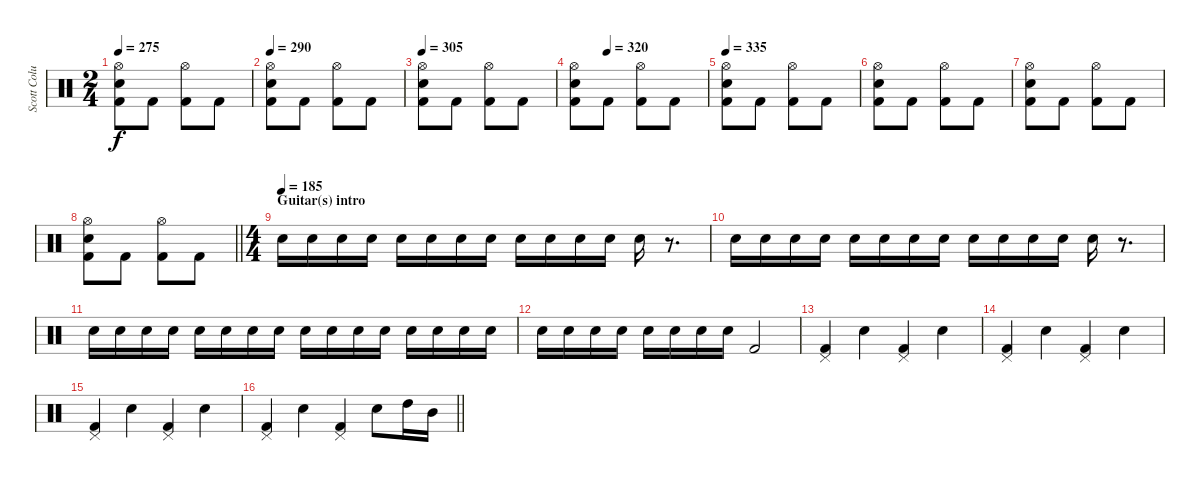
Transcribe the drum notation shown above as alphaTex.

\track ("Scott Columbus" "Scott Colu") {instrument percussion}
\staff {score}
\articulation defaults
\ts (2 4)
\tempo 275
\clef neutral
\ks c
("Hi-Hat (open)" "Snare (hit) 2" "Kick (hit) 2").8{dy f} "Kick (hit) 2".8 ("Hi-Hat (open)" "Kick (hit) 2").8 "Kick (hit) 2".8 |
\tempo 290
("Hi-Hat (open)" "Snare (hit) 2" "Kick (hit) 2").8 "Kick (hit) 2".8 ("Hi-Hat (open)" "Kick (hit) 2").8 "Kick (hit) 2".8 |
\tempo 305
("Hi-Hat (open)" "Snare (hit) 2" "Kick (hit) 2").8 "Kick (hit) 2".8 ("Hi-Hat (open)" "Kick (hit) 2").8 "Kick (hit) 2".8 |
\tempo (320 0.25)
("Hi-Hat (open)" "Snare (hit) 2" "Kick (hit) 2").8 "Kick (hit) 2".8 ("Hi-Hat (open)" "Kick (hit) 2").8 "Kick (hit) 2".8 |
\tempo 335
("Hi-Hat (open)" "Snare (hit) 2" "Kick (hit) 2").8 "Kick (hit) 2".8 ("Hi-Hat (open)" "Kick (hit) 2").8 "Kick (hit) 2".8 |
("Hi-Hat (open)" "Snare (hit) 2" "Kick (hit) 2").8 "Kick (hit) 2".8 ("Hi-Hat (open)" "Kick (hit) 2").8 "Kick (hit) 2".8 |
("Hi-Hat (open)" "Snare (hit) 2" "Kick (hit) 2").8 "Kick (hit) 2".8 ("Hi-Hat (open)" "Kick (hit) 2").8 "Kick (hit) 2".8 |
\barLineRight lightlight
("Hi-Hat (open)" "Snare (hit) 2" "Kick (hit) 2").8 "Kick (hit) 2".8 ("Hi-Hat (open)" "Kick (hit) 2").8 "Kick (hit) 2".8 |
\ts (4 4)
\section ("" "Guitar(s) intro")
\tempo (185)
"Snare (hit) 2".16 "Snare (hit) 2".16 "Snare (hit) 2".16 "Snare (hit) 2".16 "Snare (hit) 2".16 "Snare (hit) 2".16 "Snare (hit) 2".16 "Snare (hit) 2".16 "Snare (hit) 2".16 "Snare (hit) 2".16 "Snare (hit) 2".16 "Snare (hit) 2".16 "Snare (hit) 2".16 r.8{d} |
"Snare (hit) 2".16 "Snare (hit) 2".16 "Snare (hit) 2".16 "Snare (hit) 2".16 "Snare (hit) 2".16 "Snare (hit) 2".16 "Snare (hit) 2".16 "Snare (hit) 2".16 "Snare (hit) 2".16 "Snare (hit) 2".16 "Snare (hit) 2".16 "Snare (hit) 2".16 "Snare (hit) 2".16 r.8{d} |
"Snare (hit) 2".16 "Snare (hit) 2".16 "Snare (hit) 2".16 "Snare (hit) 2".16 "Snare (hit) 2".16 "Snare (hit) 2".16 "Snare (hit) 2".16 "Snare (hit) 2".16 "Snare (hit) 2".16 "Snare (hit) 2".16 "Snare (hit) 2".16 "Snare (hit) 2".16 "Snare (hit) 2".16 "Snare (hit) 2".16 "Snare (hit) 2".16 "Snare (hit) 2".16 |
"Snare (hit) 2".16 "Snare (hit) 2".16 "Snare (hit) 2".16 "Snare (hit) 2".16 "Snare (hit) 2".16 "Snare (hit) 2".16 "Snare (hit) 2".16 "Snare (hit) 2".16 "Kick (hit) 2".2 |
("Pedal Hi-Hat (hit)" "Kick (hit) 2").4 "Snare (hit) 2".4 ("Pedal Hi-Hat (hit)" "Kick (hit) 2").4 "Snare (hit) 2".4 |
("Pedal Hi-Hat (hit)" "Kick (hit) 2").4 "Snare (hit) 2".4 ("Pedal Hi-Hat (hit)" "Kick (hit) 2").4 "Snare (hit) 2".4 |
("Pedal Hi-Hat (hit)" "Kick (hit) 2").4 "Snare (hit) 2".4 ("Pedal Hi-Hat (hit)" "Kick (hit) 2").4 "Snare (hit) 2".4 |
\barLineRight lightlight
("Pedal Hi-Hat (hit)" "Kick (hit) 2").4 "Snare (hit) 2".4 ("Pedal Hi-Hat (hit)" "Kick (hit) 2").4 "Snare (hit) 2".8 "High Tom (hit)".16 "Mid Tom (hit)".16
